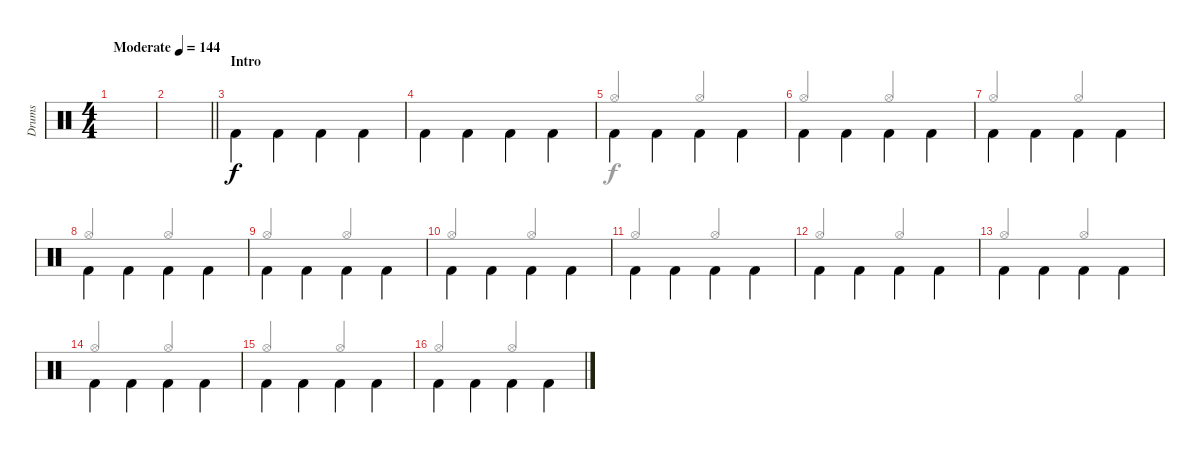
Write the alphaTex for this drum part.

\track ("Drums" "Drums") {instrument percussion}
\staff {score}
\articulation defaults
\voice
\ts (4 4)
\tempo (144 "Moderate")
\clef neutral
\ks c
|
\barLineRight lightlight
|
\section ("" "Intro")
"Kick (hit) 2".4{beam Down} "Kick (hit) 2".4{beam Down} "Kick (hit) 2".4{beam Down} "Kick (hit) 2".4{beam Down} |
"Kick (hit) 2".4{beam Down} "Kick (hit) 2".4{beam Down} "Kick (hit) 2".4{beam Down} "Kick (hit) 2".4{beam Down} |
"Kick (hit) 2".4{beam Down} "Kick (hit) 2".4{beam Down} "Kick (hit) 2".4{beam Down} "Kick (hit) 2".4{beam Down} |
"Kick (hit) 2".4{beam Down} "Kick (hit) 2".4{beam Down} "Kick (hit) 2".4{beam Down} "Kick (hit) 2".4{beam Down} |
"Kick (hit) 2".4{beam Down} "Kick (hit) 2".4{beam Down} "Kick (hit) 2".4{beam Down} "Kick (hit) 2".4{beam Down} |
"Kick (hit) 2".4{beam Down} "Kick (hit) 2".4{beam Down} "Kick (hit) 2".4{beam Down} "Kick (hit) 2".4{beam Down} |
"Kick (hit) 2".4{beam Down} "Kick (hit) 2".4{beam Down} "Kick (hit) 2".4{beam Down} "Kick (hit) 2".4{beam Down} |
"Kick (hit) 2".4{beam Down} "Kick (hit) 2".4{beam Down} "Kick (hit) 2".4{beam Down} "Kick (hit) 2".4{beam Down} |
"Kick (hit) 2".4{beam Down} "Kick (hit) 2".4{beam Down} "Kick (hit) 2".4{beam Down} "Kick (hit) 2".4{beam Down} |
"Kick (hit) 2".4{beam Down} "Kick (hit) 2".4{beam Down} "Kick (hit) 2".4{beam Down} "Kick (hit) 2".4{beam Down} |
"Kick (hit) 2".4{beam Down} "Kick (hit) 2".4{beam Down} "Kick (hit) 2".4{beam Down} "Kick (hit) 2".4{beam Down} |
"Kick (hit) 2".4{beam Down} "Kick (hit) 2".4{beam Down} "Kick (hit) 2".4{beam Down} "Kick (hit) 2".4{beam Down} |
"Kick (hit) 2".4{beam Down} "Kick (hit) 2".4{beam Down} "Kick (hit) 2".4{beam Down} "Kick (hit) 2".4{beam Down} |
"Kick (hit) 2".4{beam Down} "Kick (hit) 2".4{beam Down} "Kick (hit) 2".4{beam Down} "Kick (hit) 2".4{beam Down}
\voice
\clef neutral
\ottava regular
\simile none
\ks c
|
\barLineRight lightlight
|
|
|
"Hi-Hat (open)".2{beam Up} "Hi-Hat (open)".2{beam Up} |
"Hi-Hat (open)".2{beam Up} "Hi-Hat (open)".2{beam Up} |
"Hi-Hat (open)".2{beam Up} "Hi-Hat (open)".2{beam Up} |
"Hi-Hat (open)".2{beam Up} "Hi-Hat (open)".2{beam Up} |
"Hi-Hat (open)".2{beam Up} "Hi-Hat (open)".2{beam Up} |
"Hi-Hat (open)".2{beam Up} "Hi-Hat (open)".2{beam Up} |
"Hi-Hat (open)".2{beam Up} "Hi-Hat (open)".2{beam Up} |
"Hi-Hat (open)".2{beam Up} "Hi-Hat (open)".2{beam Up} |
"Hi-Hat (open)".2{beam Up} "Hi-Hat (open)".2{beam Up} |
"Hi-Hat (open)".2{beam Up} "Hi-Hat (open)".2{beam Up} |
"Hi-Hat (open)".2{beam Up} "Hi-Hat (open)".2{beam Up} |
"Hi-Hat (open)".2{beam Up} "Hi-Hat (open)".2{beam Up}
